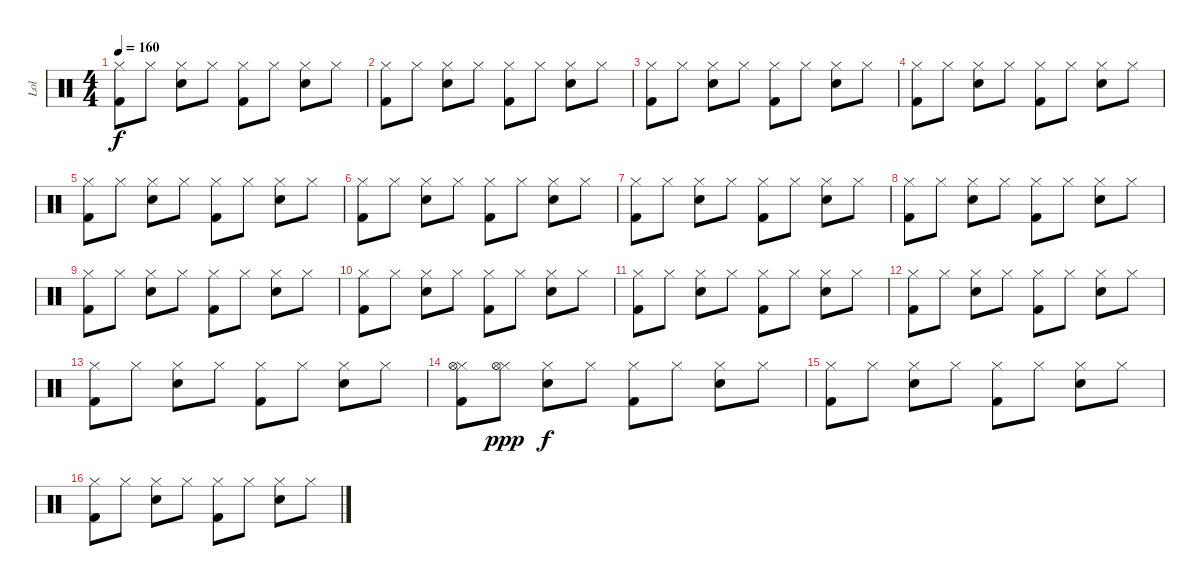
\track ("Lol" "Lol") {instrument percussion}
\staff {score}
\articulation defaults
\ts (4 4)
\tempo 160
\clef neutral
\ks c
("Kick (hit) 2" "Hi-Hat (closed)").8{dy f} "Hi-Hat (closed)".8 ("Snare (hit) 2" "Hi-Hat (closed)").8 "Hi-Hat (closed)".8 ("Kick (hit) 2" "Hi-Hat (closed)").8 "Hi-Hat (closed)".8 ("Snare (hit) 2" "Hi-Hat (closed)").8 "Hi-Hat (closed)".8 |
("Kick (hit) 2" "Hi-Hat (closed)").8 "Hi-Hat (closed)".8 ("Snare (hit) 2" "Hi-Hat (closed)").8 "Hi-Hat (closed)".8 ("Kick (hit) 2" "Hi-Hat (closed)").8 "Hi-Hat (closed)".8 ("Snare (hit) 2" "Hi-Hat (closed)").8 "Hi-Hat (closed)".8 |
("Kick (hit) 2" "Hi-Hat (closed)").8 "Hi-Hat (closed)".8 ("Snare (hit) 2" "Hi-Hat (closed)").8 "Hi-Hat (closed)".8 ("Kick (hit) 2" "Hi-Hat (closed)").8 "Hi-Hat (closed)".8 ("Snare (hit) 2" "Hi-Hat (closed)").8 "Hi-Hat (closed)".8 |
("Kick (hit) 2" "Hi-Hat (closed)").8 "Hi-Hat (closed)".8 ("Snare (hit) 2" "Hi-Hat (closed)").8 "Hi-Hat (closed)".8 ("Kick (hit) 2" "Hi-Hat (closed)").8 "Hi-Hat (closed)".8 ("Snare (hit) 2" "Hi-Hat (closed)").8 "Hi-Hat (closed)".8 |
("Kick (hit) 2" "Hi-Hat (closed)").8 "Hi-Hat (closed)".8 ("Snare (hit) 2" "Hi-Hat (closed)").8 "Hi-Hat (closed)".8 ("Kick (hit) 2" "Hi-Hat (closed)").8 "Hi-Hat (closed)".8 ("Snare (hit) 2" "Hi-Hat (closed)").8 "Hi-Hat (closed)".8 |
("Kick (hit) 2" "Hi-Hat (closed)").8 "Hi-Hat (closed)".8 ("Snare (hit) 2" "Hi-Hat (closed)").8 "Hi-Hat (closed)".8 ("Kick (hit) 2" "Hi-Hat (closed)").8 "Hi-Hat (closed)".8 ("Snare (hit) 2" "Hi-Hat (closed)").8 "Hi-Hat (closed)".8 |
("Kick (hit) 2" "Hi-Hat (closed)").8 "Hi-Hat (closed)".8 ("Snare (hit) 2" "Hi-Hat (closed)").8 "Hi-Hat (closed)".8 ("Kick (hit) 2" "Hi-Hat (closed)").8 "Hi-Hat (closed)".8 ("Snare (hit) 2" "Hi-Hat (closed)").8 "Hi-Hat (closed)".8 |
("Kick (hit) 2" "Hi-Hat (closed)").8 "Hi-Hat (closed)".8 ("Snare (hit) 2" "Hi-Hat (closed)").8 "Hi-Hat (closed)".8 ("Kick (hit) 2" "Hi-Hat (closed)").8 "Hi-Hat (closed)".8 ("Snare (hit) 2" "Hi-Hat (closed)").8 "Hi-Hat (closed)".8 |
("Kick (hit) 2" "Hi-Hat (closed)").8 "Hi-Hat (closed)".8 ("Snare (hit) 2" "Hi-Hat (closed)").8 "Hi-Hat (closed)".8 ("Kick (hit) 2" "Hi-Hat (closed)").8 "Hi-Hat (closed)".8 ("Snare (hit) 2" "Hi-Hat (closed)").8 "Hi-Hat (closed)".8 |
("Kick (hit) 2" "Hi-Hat (closed)").8 "Hi-Hat (closed)".8 ("Snare (hit) 2" "Hi-Hat (closed)").8 "Hi-Hat (closed)".8 ("Kick (hit) 2" "Hi-Hat (closed)").8 "Hi-Hat (closed)".8 ("Snare (hit) 2" "Hi-Hat (closed)").8 "Hi-Hat (closed)".8 |
("Kick (hit) 2" "Hi-Hat (closed)").8 "Hi-Hat (closed)".8 ("Snare (hit) 2" "Hi-Hat (closed)").8 "Hi-Hat (closed)".8 ("Kick (hit) 2" "Hi-Hat (closed)").8 "Hi-Hat (closed)".8 ("Snare (hit) 2" "Hi-Hat (closed)").8 "Hi-Hat (closed)".8 |
("Kick (hit) 2" "Hi-Hat (closed)").8 "Hi-Hat (closed)".8 ("Snare (hit) 2" "Hi-Hat (closed)").8 "Hi-Hat (closed)".8 ("Kick (hit) 2" "Hi-Hat (closed)").8 "Hi-Hat (closed)".8 ("Snare (hit) 2" "Hi-Hat (closed)").8 "Hi-Hat (closed)".8 |
("Kick (hit) 2" "Hi-Hat (closed)").8 "Hi-Hat (closed)".8 ("Snare (hit) 2" "Hi-Hat (closed)").8 "Hi-Hat (closed)".8 ("Kick (hit) 2" "Hi-Hat (closed)").8 "Hi-Hat (closed)".8 ("Snare (hit) 2" "Hi-Hat (closed)").8 "Hi-Hat (closed)".8 |
("Kick (hit) 2" "Hi-Hat (closed)" "Hi-Hat (open)").8 ("Hi-Hat (closed)" "Hi-Hat (open)").8{dy ppp} ("Snare (hit) 2" "Hi-Hat (closed)").8{dy f} "Hi-Hat (closed)".8 ("Kick (hit) 2" "Hi-Hat (closed)").8 "Hi-Hat (closed)".8 ("Snare (hit) 2" "Hi-Hat (closed)").8 "Hi-Hat (closed)".8 |
("Kick (hit) 2" "Hi-Hat (closed)").8 "Hi-Hat (closed)".8 ("Snare (hit) 2" "Hi-Hat (closed)").8 "Hi-Hat (closed)".8 ("Kick (hit) 2" "Hi-Hat (closed)").8 "Hi-Hat (closed)".8 ("Snare (hit) 2" "Hi-Hat (closed)").8 "Hi-Hat (closed)".8 |
("Kick (hit) 2" "Hi-Hat (closed)").8 "Hi-Hat (closed)".8 ("Snare (hit) 2" "Hi-Hat (closed)").8 "Hi-Hat (closed)".8 ("Kick (hit) 2" "Hi-Hat (closed)").8 "Hi-Hat (closed)".8 ("Snare (hit) 2" "Hi-Hat (closed)").8 "Hi-Hat (closed)".8
